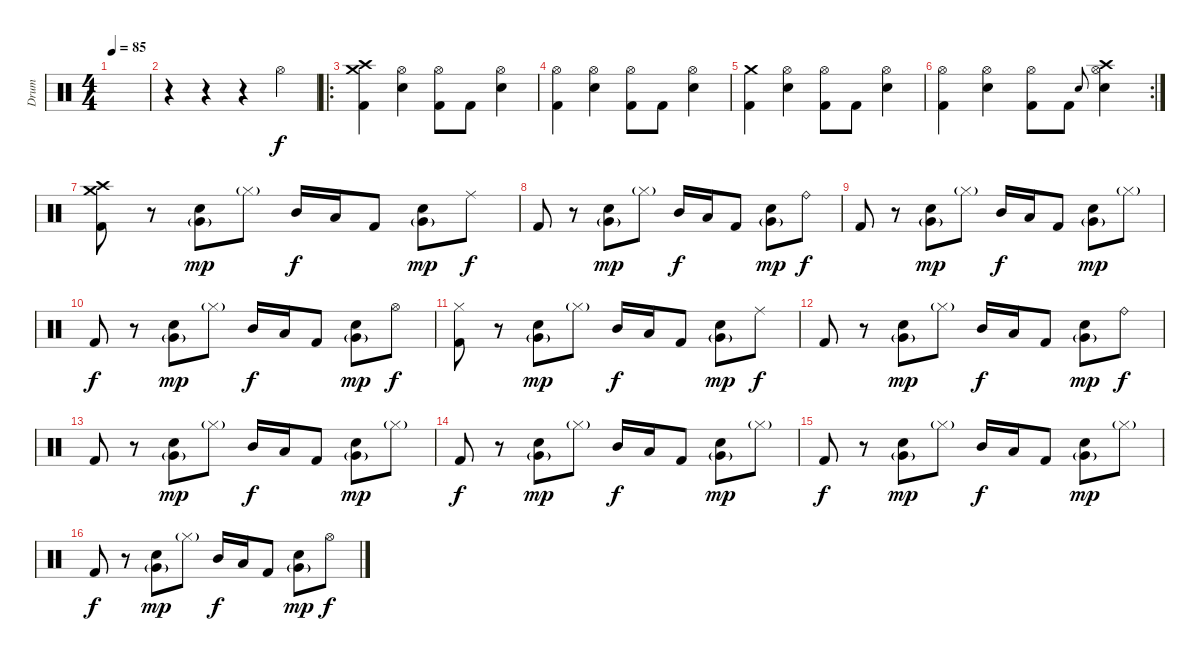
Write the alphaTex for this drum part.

\track ("Drum" "Drum") {instrument percussion}
\staff {score}
\articulation defaults
\ts (4 4)
\tempo 85
\clef neutral
\ks c
|
r.4 r.4 r.4 "Hi-Hat (open)".4 |
\ro
\section ("" "")
("Crash high (hit)" "Crash medium (hit)" "Kick (hit) 2").4 ("Hi-Hat (open)" "Electric Snare (hit)").4 ("Hi-Hat (open)" "Kick (hit) 2").8 "Kick (hit) 2".8 ("Hi-Hat (open)" "Electric Snare (hit)").4 |
("Hi-Hat (open)" "Kick (hit) 2").4 ("Hi-Hat (open)" "Electric Snare (hit)").4 ("Hi-Hat (open)" "Kick (hit) 2").8 "Kick (hit) 2".8 ("Hi-Hat (open)" "Electric Snare (hit)").4 |
("Crash medium (hit)" "Kick (hit) 2").4 ("Hi-Hat (open)" "Electric Snare (hit)").4 ("Hi-Hat (open)" "Kick (hit) 2").8 "Kick (hit) 2".8 ("Hi-Hat (open)" "Electric Snare (hit)").4 |
\rc 2
("Hi-Hat (open)" "Kick (hit) 2").4 ("Hi-Hat (open)" "Electric Snare (hit)").4 ("Hi-Hat (open)" "Kick (hit) 2").8 "Kick (hit) 2".8 "Electric Snare (hit)".8{gr onbeat} ("Hi-Hat (open)" "Crash high (hit)" "Electric Snare (hit)").4 |
\section ("" "")
("Crash medium (hit)" "Crash high (hit)" "Kick (hit) 2").8 r.8 ("Very Low Tom (hit)"{g} "Electric Snare (hit)").8{dy mp} "Hi-Hat (closed)"{g}.8 "Mid Tom (hit)".16{dy f} "Low Tom (hit)".16 "Kick (hit) 2".8 ("Very Low Tom (hit)"{g} "Electric Snare (hit)").8{dy mp} "Ride (middle)".8{dy f} |
"Kick (hit) 2".8 r.8 ("Very Low Tom (hit)"{g} "Electric Snare (hit)").8{dy mp} "Hi-Hat (closed)"{g}.8 "Mid Tom (hit)".16{dy f} "Low Tom (hit)".16 "Kick (hit) 2".8 ("Very Low Tom (hit)"{g} "Electric Snare (hit)").8{dy mp} "Ride (bell)".8{dy f} |
"Kick (hit) 2".8 r.8 ("Very Low Tom (hit)"{g} "Electric Snare (hit)").8{dy mp} "Hi-Hat (closed)"{g}.8 "Mid Tom (hit)".16{dy f} "Low Tom (hit)".16 "Kick (hit) 2".8 ("Very Low Tom (hit)"{g} "Electric Snare (hit)").8{dy mp} "Hi-Hat (closed)"{g}.8 |
"Kick (hit) 2".8{dy f} r.8 ("Very Low Tom (hit)"{g} "Electric Snare (hit)").8{dy mp} "Hi-Hat (closed)"{g}.8 "Mid Tom (hit)".16{dy f} "Low Tom (hit)".16 "Kick (hit) 2".8 ("Very Low Tom (hit)"{g} "Electric Snare (hit)").8{dy mp} "Hi-Hat (open)".8{dy f} |
("Hi-Hat (closed)" "Kick (hit) 2").8 r.8 ("Very Low Tom (hit)"{g} "Electric Snare (hit)").8{dy mp} "Hi-Hat (closed)"{g}.8 "Mid Tom (hit)".16{dy f} "Low Tom (hit)".16 "Kick (hit) 2".8 ("Very Low Tom (hit)"{g} "Electric Snare (hit)").8{dy mp} "Ride (middle)".8{dy f} |
"Kick (hit) 2".8 r.8 ("Very Low Tom (hit)"{g} "Electric Snare (hit)").8{dy mp} "Hi-Hat (closed)"{g}.8 "Mid Tom (hit)".16{dy f} "Low Tom (hit)".16 "Kick (hit) 2".8 ("Very Low Tom (hit)"{g} "Electric Snare (hit)").8{dy mp} "Ride (bell)".8{dy f} |
"Kick (hit) 2".8 r.8 ("Very Low Tom (hit)"{g} "Electric Snare (hit)").8{dy mp} "Hi-Hat (closed)"{g}.8 "Mid Tom (hit)".16{dy f} "Low Tom (hit)".16 "Kick (hit) 2".8 ("Very Low Tom (hit)"{g} "Electric Snare (hit)").8{dy mp} "Hi-Hat (closed)"{g}.8 |
"Kick (hit) 2".8{dy f} r.8 ("Very Low Tom (hit)"{g} "Electric Snare (hit)").8{dy mp} "Hi-Hat (closed)"{g}.8 "Mid Tom (hit)".16{dy f} "Low Tom (hit)".16 "Kick (hit) 2".8 ("Very Low Tom (hit)"{g} "Electric Snare (hit)").8{dy mp} "Hi-Hat (closed)"{g}.8 |
\section ("" "")
"Kick (hit) 2".8{dy f} r.8 ("Very Low Tom (hit)"{g} "Electric Snare (hit)").8{dy mp} "Hi-Hat (closed)"{g}.8 "Mid Tom (hit)".16{dy f} "Low Tom (hit)".16 "Kick (hit) 2".8 ("Very Low Tom (hit)"{g} "Electric Snare (hit)").8{dy mp} "Hi-Hat (closed)"{g}.8 |
"Kick (hit) 2".8{dy f} r.8 ("Very Low Tom (hit)"{g} "Electric Snare (hit)").8{dy mp} "Hi-Hat (closed)"{g}.8 "Mid Tom (hit)".16{dy f} "Low Tom (hit)".16 "Kick (hit) 2".8 ("Very Low Tom (hit)"{g} "Electric Snare (hit)").8{dy mp} "Hi-Hat (open)".8{dy f}
